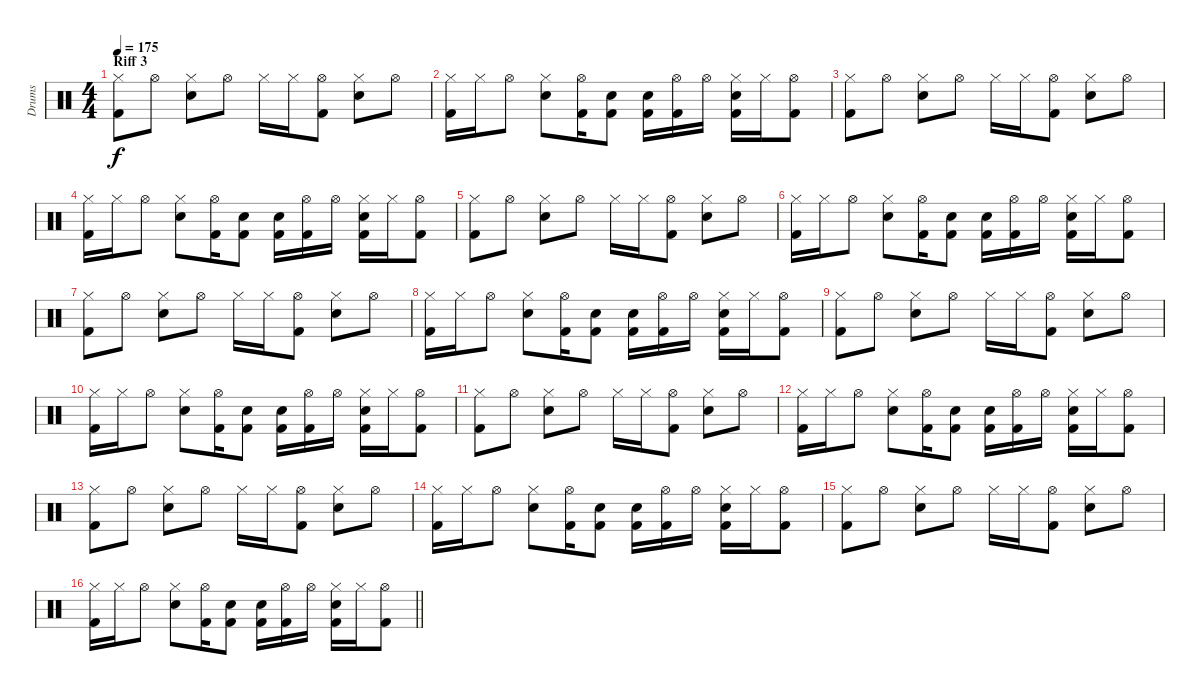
\track ("Drums" "Drums") {instrument percussion}
\staff {score}
\articulation defaults
\ts (4 4)
\section ("" "Riff 3")
\tempo 175
\clef neutral
\ks c
("Kick (hit) 2" "Hi-Hat (closed)").8{dy f} "Hi-Hat (open)".8 ("Snare (hit) 2" "Hi-Hat (closed)").8 "Hi-Hat (open)".8 "Hi-Hat (closed)".16 "Hi-Hat (closed)".16 ("Kick (hit) 2" "Hi-Hat (open)").8 ("Snare (hit) 2" "Hi-Hat (closed)").8 "Hi-Hat (open)".8 |
("Kick (hit) 2" "Hi-Hat (closed)").16 "Hi-Hat (closed)".16 "Hi-Hat (open)".8 ("Snare (hit) 2" "Hi-Hat (closed)").8 ("Kick (hit) 2" "Hi-Hat (open)").16 ("Kick (hit) 2" "Snare (hit) 2").8 ("Kick (hit) 2" "Snare (hit) 2").16 ("Kick (hit) 2" "Hi-Hat (open)").16 "Hi-Hat (open)".16 ("Kick (hit) 2" "Snare (hit) 2" "Hi-Hat (closed)").16 "Hi-Hat (closed)".16 ("Kick (hit) 2" "Hi-Hat (open)").8 |
("Kick (hit) 2" "Hi-Hat (closed)").8 "Hi-Hat (open)".8 ("Snare (hit) 2" "Hi-Hat (closed)").8 "Hi-Hat (open)".8 "Hi-Hat (closed)".16 "Hi-Hat (closed)".16 ("Kick (hit) 2" "Hi-Hat (open)").8 ("Snare (hit) 2" "Hi-Hat (closed)").8 "Hi-Hat (open)".8 |
("Kick (hit) 2" "Hi-Hat (closed)").16 "Hi-Hat (closed)".16 "Hi-Hat (open)".8 ("Snare (hit) 2" "Hi-Hat (closed)").8 ("Kick (hit) 2" "Hi-Hat (open)").16 ("Kick (hit) 2" "Snare (hit) 2").8 ("Kick (hit) 2" "Snare (hit) 2").16 ("Kick (hit) 2" "Hi-Hat (open)").16 "Hi-Hat (open)".16 ("Kick (hit) 2" "Snare (hit) 2" "Hi-Hat (closed)").16 "Hi-Hat (closed)".16 ("Kick (hit) 2" "Hi-Hat (open)").8 |
("Kick (hit) 2" "Hi-Hat (closed)").8 "Hi-Hat (open)".8 ("Snare (hit) 2" "Hi-Hat (closed)").8 "Hi-Hat (open)".8 "Hi-Hat (closed)".16 "Hi-Hat (closed)".16 ("Kick (hit) 2" "Hi-Hat (open)").8 ("Snare (hit) 2" "Hi-Hat (closed)").8 "Hi-Hat (open)".8 |
("Kick (hit) 2" "Hi-Hat (closed)").16 "Hi-Hat (closed)".16 "Hi-Hat (open)".8 ("Snare (hit) 2" "Hi-Hat (closed)").8 ("Kick (hit) 2" "Hi-Hat (open)").16 ("Kick (hit) 2" "Snare (hit) 2").8 ("Kick (hit) 2" "Snare (hit) 2").16 ("Kick (hit) 2" "Hi-Hat (open)").16 "Hi-Hat (open)".16 ("Kick (hit) 2" "Snare (hit) 2" "Hi-Hat (closed)").16 "Hi-Hat (closed)".16 ("Kick (hit) 2" "Hi-Hat (open)").8 |
("Kick (hit) 2" "Hi-Hat (closed)").8 "Hi-Hat (open)".8 ("Snare (hit) 2" "Hi-Hat (closed)").8 "Hi-Hat (open)".8 "Hi-Hat (closed)".16 "Hi-Hat (closed)".16 ("Kick (hit) 2" "Hi-Hat (open)").8 ("Snare (hit) 2" "Hi-Hat (closed)").8 "Hi-Hat (open)".8 |
("Kick (hit) 2" "Hi-Hat (closed)").16 "Hi-Hat (closed)".16 "Hi-Hat (open)".8 ("Snare (hit) 2" "Hi-Hat (closed)").8 ("Kick (hit) 2" "Hi-Hat (open)").16 ("Kick (hit) 2" "Snare (hit) 2").8 ("Kick (hit) 2" "Snare (hit) 2").16 ("Kick (hit) 2" "Hi-Hat (open)").16 "Hi-Hat (open)".16 ("Kick (hit) 2" "Snare (hit) 2" "Hi-Hat (closed)").16 "Hi-Hat (closed)".16 ("Kick (hit) 2" "Hi-Hat (open)").8 |
("Kick (hit) 2" "Hi-Hat (closed)").8 "Hi-Hat (open)".8 ("Snare (hit) 2" "Hi-Hat (closed)").8 "Hi-Hat (open)".8 "Hi-Hat (closed)".16 "Hi-Hat (closed)".16 ("Kick (hit) 2" "Hi-Hat (open)").8 ("Snare (hit) 2" "Hi-Hat (closed)").8 "Hi-Hat (open)".8 |
("Kick (hit) 2" "Hi-Hat (closed)").16 "Hi-Hat (closed)".16 "Hi-Hat (open)".8 ("Snare (hit) 2" "Hi-Hat (closed)").8 ("Kick (hit) 2" "Hi-Hat (open)").16 ("Kick (hit) 2" "Snare (hit) 2").8 ("Kick (hit) 2" "Snare (hit) 2").16 ("Kick (hit) 2" "Hi-Hat (open)").16 "Hi-Hat (open)".16 ("Kick (hit) 2" "Snare (hit) 2" "Hi-Hat (closed)").16 "Hi-Hat (closed)".16 ("Kick (hit) 2" "Hi-Hat (open)").8 |
("Kick (hit) 2" "Hi-Hat (closed)").8 "Hi-Hat (open)".8 ("Snare (hit) 2" "Hi-Hat (closed)").8 "Hi-Hat (open)".8 "Hi-Hat (closed)".16 "Hi-Hat (closed)".16 ("Kick (hit) 2" "Hi-Hat (open)").8 ("Snare (hit) 2" "Hi-Hat (closed)").8 "Hi-Hat (open)".8 |
("Kick (hit) 2" "Hi-Hat (closed)").16 "Hi-Hat (closed)".16 "Hi-Hat (open)".8 ("Snare (hit) 2" "Hi-Hat (closed)").8 ("Kick (hit) 2" "Hi-Hat (open)").16 ("Kick (hit) 2" "Snare (hit) 2").8 ("Kick (hit) 2" "Snare (hit) 2").16 ("Kick (hit) 2" "Hi-Hat (open)").16 "Hi-Hat (open)".16 ("Kick (hit) 2" "Snare (hit) 2" "Hi-Hat (closed)").16 "Hi-Hat (closed)".16 ("Kick (hit) 2" "Hi-Hat (open)").8 |
("Kick (hit) 2" "Hi-Hat (closed)").8 "Hi-Hat (open)".8 ("Snare (hit) 2" "Hi-Hat (closed)").8 "Hi-Hat (open)".8 "Hi-Hat (closed)".16 "Hi-Hat (closed)".16 ("Kick (hit) 2" "Hi-Hat (open)").8 ("Snare (hit) 2" "Hi-Hat (closed)").8 "Hi-Hat (open)".8 |
("Kick (hit) 2" "Hi-Hat (closed)").16 "Hi-Hat (closed)".16 "Hi-Hat (open)".8 ("Snare (hit) 2" "Hi-Hat (closed)").8 ("Kick (hit) 2" "Hi-Hat (open)").16 ("Kick (hit) 2" "Snare (hit) 2").8 ("Kick (hit) 2" "Snare (hit) 2").16 ("Kick (hit) 2" "Hi-Hat (open)").16 "Hi-Hat (open)".16 ("Kick (hit) 2" "Snare (hit) 2" "Hi-Hat (closed)").16 "Hi-Hat (closed)".16 ("Kick (hit) 2" "Hi-Hat (open)").8 |
("Kick (hit) 2" "Hi-Hat (closed)").8 "Hi-Hat (open)".8 ("Snare (hit) 2" "Hi-Hat (closed)").8 "Hi-Hat (open)".8 "Hi-Hat (closed)".16 "Hi-Hat (closed)".16 ("Kick (hit) 2" "Hi-Hat (open)").8 ("Snare (hit) 2" "Hi-Hat (closed)").8 "Hi-Hat (open)".8 |
\barLineRight lightlight
("Kick (hit) 2" "Hi-Hat (closed)").16 "Hi-Hat (closed)".16 "Hi-Hat (open)".8 ("Snare (hit) 2" "Hi-Hat (closed)").8 ("Kick (hit) 2" "Hi-Hat (open)").16 ("Kick (hit) 2" "Snare (hit) 2").8 ("Kick (hit) 2" "Snare (hit) 2").16 ("Kick (hit) 2" "Hi-Hat (open)").16 "Hi-Hat (open)".16 ("Kick (hit) 2" "Snare (hit) 2" "Hi-Hat (closed)").16 "Hi-Hat (closed)".16 ("Kick (hit) 2" "Hi-Hat (open)").8
